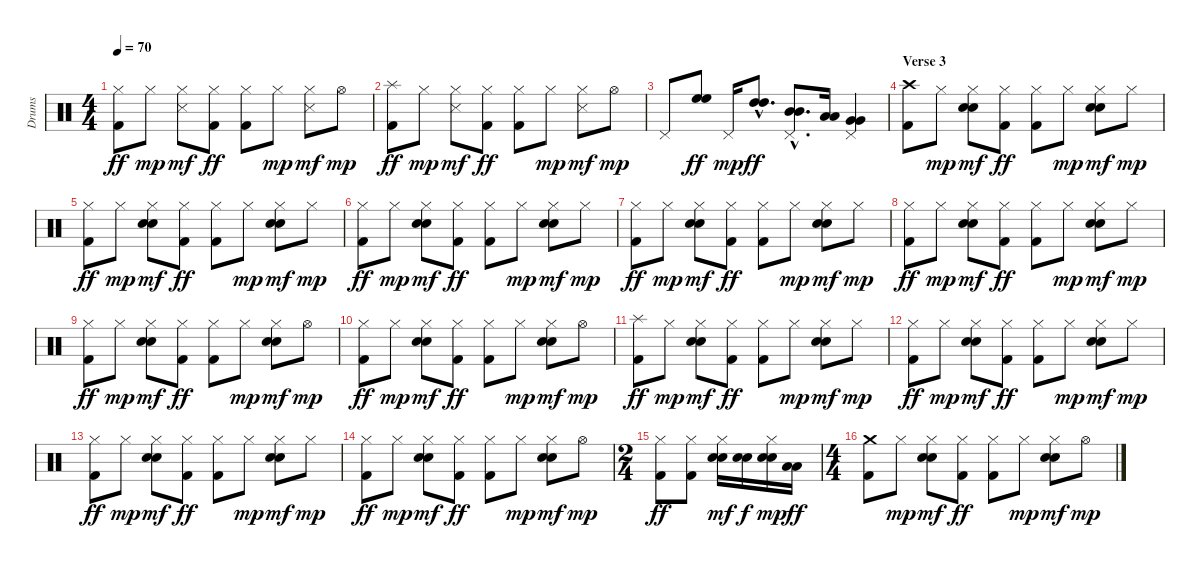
\track ("Drums" "Drums") {instrument percussion}
\staff {score}
\articulation defaults
\ts (4 4)
\tempo 70
\clef neutral
\ks c
("Hi-Hat (closed)" "Kick (hit) 2").8{dy ff} "Hi-Hat (closed)".8{dy mp} ("Hi-Hat (closed)" "Snare (side stick) 3").8{dy mf} ("Hi-Hat (closed)" "Kick (hit) 2").8{dy ff} ("Hi-Hat (closed)" "Kick (hit) 2").8 "Hi-Hat (closed)".8{dy mp} ("Hi-Hat (closed)" "Snare (side stick) 3").8{dy mf} "Hi-Hat (open)".8{dy mp} |
("Splash (hit)" "Kick (hit) 2").8{dy ff} "Hi-Hat (closed)".8{dy mp} ("Hi-Hat (closed)" "Snare (side stick) 3").8{dy mf} ("Hi-Hat (closed)" "Kick (hit) 2").8{dy ff} ("Hi-Hat (closed)" "Kick (hit) 2").8 "Hi-Hat (closed)".8{dy mp} ("Hi-Hat (closed)" "Snare (side stick) 3").8{dy mf} "Hi-Hat (open)".8{dy mp} |
"Pedal Hi-Hat (hit)".8 ("High Floor Tom (hit)" "High Floor Tom (hit)").8{dy ff} "Pedal Hi-Hat (hit)".16{dy mp} ("High Tom (hit)"{hac} "High Tom (hit)"{hac}).8{d dy ff} ("Pedal Hi-Hat (hit)"{hac} "Mid Tom (hit)"{hac} "Mid Tom (hit)"{hac}).8{d} ("Low Tom (hit)" "Low Tom (hit)").16 ("Pedal Hi-Hat (hit)" "Very Low Tom (hit)" "Very Low Tom (hit)").4 |
\section ("" "Verse 3")
("Crash high (hit)" "Kick (hit) 2").8 "Hi-Hat (closed)".8{dy mp} ("Hi-Hat (closed)" "Electric Snare (hit)" "Snare (hit) 2").8{dy mf} ("Hi-Hat (closed)" "Kick (hit) 2").8{dy ff} ("Hi-Hat (closed)" "Kick (hit) 2").8 "Hi-Hat (closed)".8{dy mp} ("Hi-Hat (closed)" "Electric Snare (hit)" "Snare (hit) 2").8{dy mf} "Hi-Hat (closed)".8{dy mp} |
("Hi-Hat (closed)" "Kick (hit) 2").8{dy ff} "Hi-Hat (closed)".8{dy mp} ("Hi-Hat (closed)" "Electric Snare (hit)" "Snare (hit) 2").8{dy mf} ("Hi-Hat (closed)" "Kick (hit) 2").8{dy ff} ("Hi-Hat (closed)" "Kick (hit) 2").8 "Hi-Hat (closed)".8{dy mp} ("Hi-Hat (closed)" "Electric Snare (hit)" "Snare (hit) 2").8{dy mf} "Hi-Hat (closed)".8{dy mp} |
("Hi-Hat (closed)" "Kick (hit) 2").8{dy ff} "Hi-Hat (closed)".8{dy mp} ("Hi-Hat (closed)" "Electric Snare (hit)" "Snare (hit) 2").8{dy mf} ("Hi-Hat (closed)" "Kick (hit) 2").8{dy ff} ("Hi-Hat (closed)" "Kick (hit) 2").8 "Hi-Hat (closed)".8{dy mp} ("Hi-Hat (closed)" "Electric Snare (hit)" "Snare (hit) 2").8{dy mf} "Hi-Hat (closed)".8{dy mp} |
("Hi-Hat (closed)" "Kick (hit) 2").8{dy ff} "Hi-Hat (closed)".8{dy mp} ("Hi-Hat (closed)" "Electric Snare (hit)" "Snare (hit) 2").8{dy mf} ("Hi-Hat (closed)" "Kick (hit) 2").8{dy ff} ("Hi-Hat (closed)" "Kick (hit) 2").8 "Hi-Hat (closed)".8{dy mp} ("Hi-Hat (closed)" "Electric Snare (hit)" "Snare (hit) 2").8{dy mf} "Hi-Hat (closed)".8{dy mp} |
("Hi-Hat (closed)" "Kick (hit) 2").8{dy ff} "Hi-Hat (closed)".8{dy mp} ("Hi-Hat (closed)" "Electric Snare (hit)" "Snare (hit) 2").8{dy mf} ("Hi-Hat (closed)" "Kick (hit) 2").8{dy ff} ("Hi-Hat (closed)" "Kick (hit) 2").8 "Hi-Hat (closed)".8{dy mp} ("Hi-Hat (closed)" "Electric Snare (hit)" "Snare (hit) 2").8{dy mf} "Hi-Hat (closed)".8{dy mp} |
("Hi-Hat (closed)" "Kick (hit) 2").8{dy ff} "Hi-Hat (closed)".8{dy mp} ("Hi-Hat (closed)" "Electric Snare (hit)" "Snare (hit) 2").8{dy mf} ("Hi-Hat (closed)" "Kick (hit) 2").8{dy ff} ("Hi-Hat (closed)" "Kick (hit) 2").8 "Hi-Hat (closed)".8{dy mp} ("Hi-Hat (closed)" "Electric Snare (hit)" "Snare (hit) 2").8{dy mf} "Hi-Hat (open)".8{dy mp} |
("Hi-Hat (closed)" "Kick (hit) 2").8{dy ff} "Hi-Hat (closed)".8{dy mp} ("Hi-Hat (closed)" "Electric Snare (hit)" "Snare (hit) 2").8{dy mf} ("Hi-Hat (closed)" "Kick (hit) 2").8{dy ff} ("Hi-Hat (closed)" "Kick (hit) 2").8 "Hi-Hat (closed)".8{dy mp} ("Hi-Hat (closed)" "Electric Snare (hit)" "Snare (hit) 2").8{dy mf} "Hi-Hat (open)".8{dy mp} |
("Splash (hit)" "Kick (hit) 2").8{dy ff} "Hi-Hat (closed)".8{dy mp} ("Hi-Hat (closed)" "Electric Snare (hit)" "Snare (hit) 2").8{dy mf} ("Hi-Hat (closed)" "Kick (hit) 2").8{dy ff} ("Hi-Hat (closed)" "Kick (hit) 2").8 "Hi-Hat (closed)".8{dy mp} ("Hi-Hat (closed)" "Electric Snare (hit)" "Snare (hit) 2").8{dy mf} "Hi-Hat (closed)".8{dy mp} |
("Hi-Hat (closed)" "Kick (hit) 2").8{dy ff} "Hi-Hat (closed)".8{dy mp} ("Hi-Hat (closed)" "Electric Snare (hit)" "Snare (hit) 2").8{dy mf} ("Hi-Hat (closed)" "Kick (hit) 2").8{dy ff} ("Hi-Hat (closed)" "Kick (hit) 2").8 "Hi-Hat (closed)".8{dy mp} ("Hi-Hat (closed)" "Electric Snare (hit)" "Snare (hit) 2").8{dy mf} "Hi-Hat (closed)".8{dy mp} |
("Hi-Hat (closed)" "Kick (hit) 2").8{dy ff} "Hi-Hat (closed)".8{dy mp} ("Hi-Hat (closed)" "Electric Snare (hit)" "Snare (hit) 2").8{dy mf} ("Hi-Hat (closed)" "Kick (hit) 2").8{dy ff} ("Hi-Hat (closed)" "Kick (hit) 2").8 "Hi-Hat (closed)".8{dy mp} ("Hi-Hat (closed)" "Electric Snare (hit)" "Snare (hit) 2").8{dy mf} "Hi-Hat (closed)".8{dy mp} |
("Hi-Hat (closed)" "Kick (hit) 2").8{dy ff} "Hi-Hat (closed)".8{dy mp} ("Hi-Hat (closed)" "Electric Snare (hit)" "Snare (hit) 2").8{dy mf} ("Hi-Hat (closed)" "Kick (hit) 2").8{dy ff} ("Hi-Hat (closed)" "Kick (hit) 2").8 "Hi-Hat (closed)".8{dy mp} ("Hi-Hat (closed)" "Electric Snare (hit)" "Snare (hit) 2").8{dy mf} "Hi-Hat (open)".8{dy mp} |
\ts (2 4)
("Hi-Hat (closed)" "Kick (hit) 2").8{dy ff} ("Hi-Hat (closed)" "Kick (hit) 2").8 ("Hi-Hat (closed)" "Electric Snare (hit)" "Snare (hit) 2").16{dy mf} ("Electric Snare (hit)" "Snare (hit) 2").16{dy f} ("Hi-Hat (closed)" "Electric Snare (hit)" "Snare (hit) 2").16{dy mp} ("Low Tom (hit)" "Low Tom (hit)").16{dy ff} |
\ts (4 4)
("Crash medium (hit)" "Kick (hit) 2").8 "Hi-Hat (closed)".8{dy mp} ("Hi-Hat (closed)" "Electric Snare (hit)" "Snare (hit) 2").8{dy mf} ("Hi-Hat (closed)" "Kick (hit) 2").8{dy ff} ("Hi-Hat (closed)" "Kick (hit) 2").8 "Hi-Hat (closed)".8{dy mp} ("Hi-Hat (closed)" "Electric Snare (hit)" "Snare (hit) 2").8{dy mf} "Hi-Hat (open)".8{dy mp}
